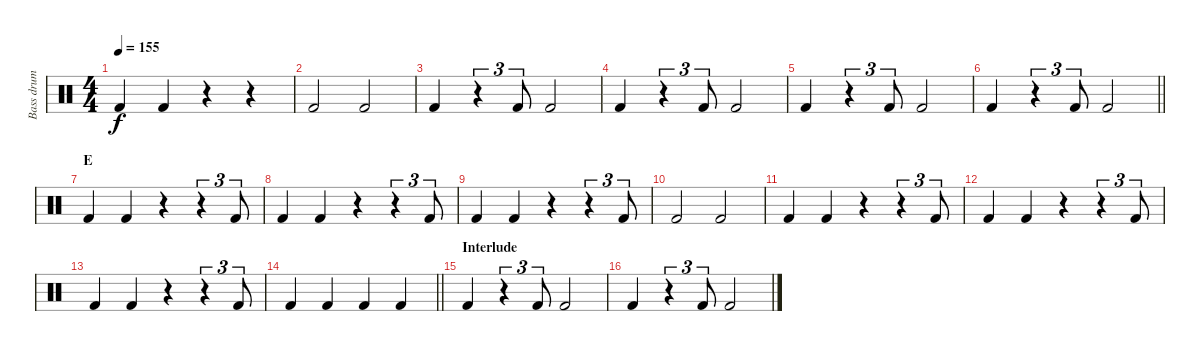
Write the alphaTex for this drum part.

\track ("Bass drum" "Bass drum") {instrument percussion}
\staff {score}
\articulation defaults
\ts (4 4)
\tempo 155
\clef neutral
\ks c "Kick (hit) 2".4{dy f} "Kick (hit) 2".4
r.4 r.4 |
"Kick (hit) 2".2 "Kick (hit) 2".2 |
"Kick (hit) 2".4 r.4{tu (3 2)} "Kick (hit) 2".8{tu (3 2)} "Kick (hit) 2".2 |
"Kick (hit) 2".4 r.4{tu (3 2)} "Kick (hit) 2".8{tu (3 2)} "Kick (hit) 2".2 |
"Kick (hit) 2".4 r.4{tu (3 2)} "Kick (hit) 2".8{tu (3 2)} "Kick (hit) 2".2 |
\barLineRight lightlight "Kick (hit) 2".4
r.4{tu (3 2)} "Kick (hit) 2".8{tu (3 2)} "Kick (hit) 2".2 |
\section ("" "E")
"Kick (hit) 2".4 "Kick (hit) 2".4 r.4 r.4{tu (3 2)} "Kick (hit) 2".8{tu (3 2)} |
"Kick (hit) 2".4 "Kick (hit) 2".4 r.4 r.4{tu (3 2)} "Kick (hit) 2".8{tu (3 2)} |
"Kick (hit) 2".4 "Kick (hit) 2".4 r.4 r.4{tu (3 2)} "Kick (hit) 2".8{tu (3 2)} |
"Kick (hit) 2".2 "Kick (hit) 2".2 |
"Kick (hit) 2".4 "Kick (hit) 2".4 r.4 r.4{tu (3 2)} "Kick (hit) 2".8{tu (3 2)} |
"Kick (hit) 2".4 "Kick (hit) 2".4 r.4 r.4{tu (3 2)} "Kick (hit) 2".8{tu (3 2)} |
"Kick (hit) 2".4 "Kick (hit) 2".4 r.4 r.4{tu (3 2)} "Kick (hit) 2".8{tu (3 2)} |
\barLineRight lightlight "Kick (hit) 2".4 "Kick (hit) 2".4 "Kick (hit) 2".4 "Kick (hit) 2".4
|
\section ("" "Interlude")
"Kick (hit) 2".4 r.4{tu (3 2)} "Kick (hit) 2".8{tu (3 2)} "Kick (hit) 2".2 |
"Kick (hit) 2".4 r.4{tu (3 2)} "Kick (hit) 2".8{tu (3 2)} "Kick (hit) 2".2
